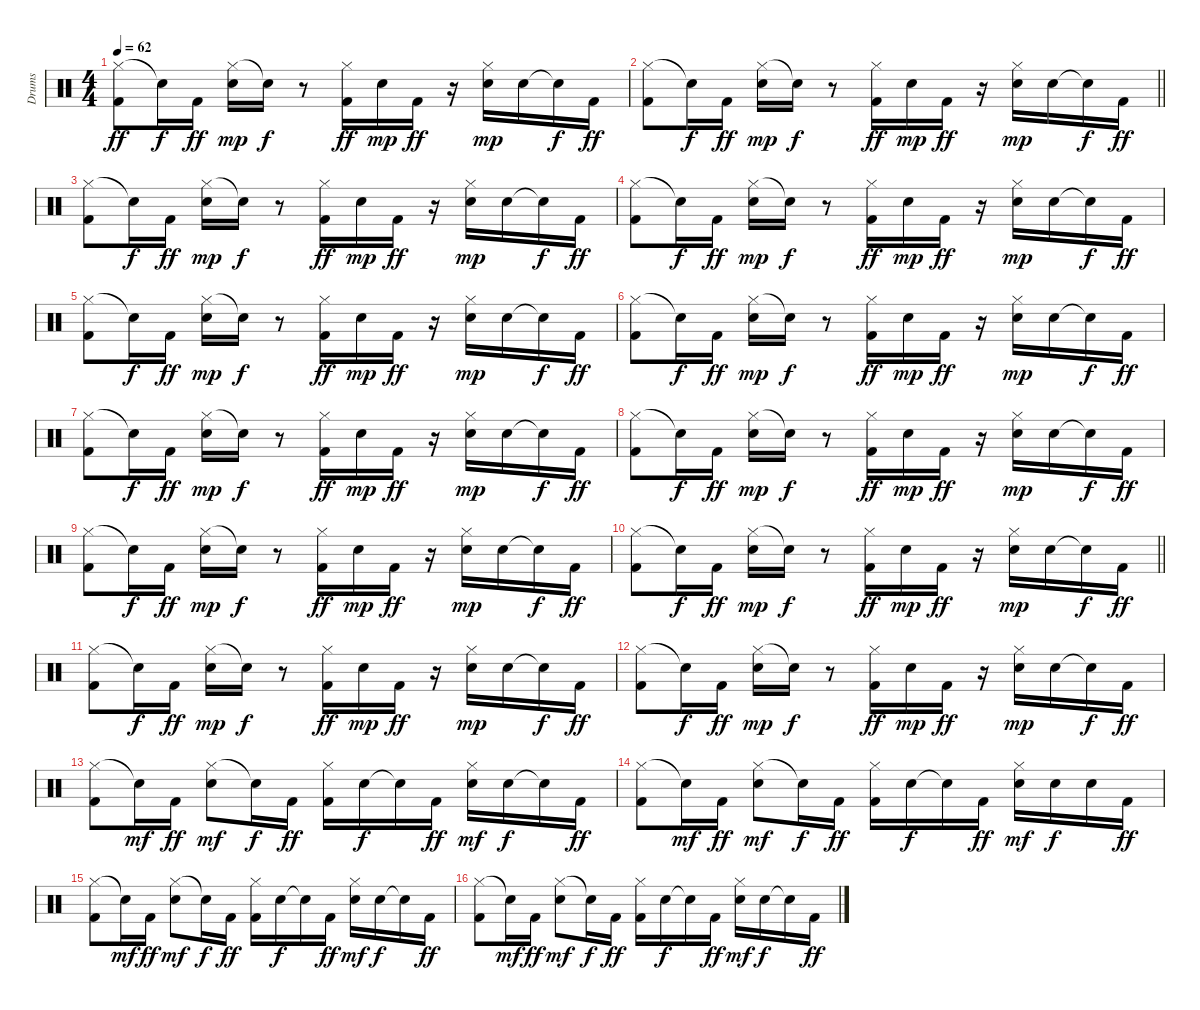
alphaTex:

\track ("Drums" "Drums") {instrument percussion}
\staff {score}
\articulation defaults
\ts (4 4)
\tempo 62
\clef neutral
\ks c
("Hi-Hat (closed)" "Kick (hit) 2").8{dy ff} "Snare (hit)"{t}.16{dy f} "Kick (hit) 2".16{dy ff} ("Hi-Hat (closed)" "Snare (hit) 2").16{dy mp} "Snare (hit)"{t}.16{dy f} r.8 ("Hi-Hat (closed)" "Kick (hit) 2").16{dy ff} "Snare (hit) 2".16{dy mp} "Kick (hit) 2".16{dy ff} r.16 ("Hi-Hat (closed)" "Snare (hit) 2").16{dy mp} "Snare (hit) 2".16 "Snare (hit)"{t}.16{dy f} "Kick (hit) 2".16{dy ff} |
\barLineRight lightlight
("Hi-Hat (closed)" "Kick (hit) 2").8 "Snare (hit)"{t}.16{dy f} "Kick (hit) 2".16{dy ff} ("Hi-Hat (closed)" "Snare (hit) 2").16{dy mp} "Snare (hit)"{t}.16{dy f} r.8 ("Hi-Hat (closed)" "Kick (hit) 2").16{dy ff} "Snare (hit) 2".16{dy mp} "Kick (hit) 2".16{dy ff} r.16 ("Hi-Hat (closed)" "Snare (hit) 2").16{dy mp} "Snare (hit) 2".16 "Snare (hit)"{t}.16{dy f} "Kick (hit) 2".16{dy ff} |
\section ("" "")
("Hi-Hat (closed)" "Kick (hit) 2").8 "Snare (hit)"{t}.16{dy f} "Kick (hit) 2".16{dy ff} ("Hi-Hat (closed)" "Snare (hit) 2").16{dy mp} "Snare (hit)"{t}.16{dy f} r.8 ("Hi-Hat (closed)" "Kick (hit) 2").16{dy ff} "Snare (hit) 2".16{dy mp} "Kick (hit) 2".16{dy ff} r.16 ("Hi-Hat (closed)" "Snare (hit) 2").16{dy mp} "Snare (hit) 2".16 "Snare (hit)"{t}.16{dy f} "Kick (hit) 2".16{dy ff} |
("Hi-Hat (closed)" "Kick (hit) 2").8 "Snare (hit)"{t}.16{dy f} "Kick (hit) 2".16{dy ff} ("Hi-Hat (closed)" "Snare (hit) 2").16{dy mp} "Snare (hit)"{t}.16{dy f} r.8 ("Hi-Hat (closed)" "Kick (hit) 2").16{dy ff} "Snare (hit) 2".16{dy mp} "Kick (hit) 2".16{dy ff} r.16 ("Hi-Hat (closed)" "Snare (hit) 2").16{dy mp} "Snare (hit) 2".16 "Snare (hit)"{t}.16{dy f} "Kick (hit) 2".16{dy ff} |
("Hi-Hat (closed)" "Kick (hit) 2").8 "Snare (hit)"{t}.16{dy f} "Kick (hit) 2".16{dy ff} ("Hi-Hat (closed)" "Snare (hit) 2").16{dy mp} "Snare (hit)"{t}.16{dy f} r.8 ("Hi-Hat (closed)" "Kick (hit) 2").16{dy ff} "Snare (hit) 2".16{dy mp} "Kick (hit) 2".16{dy ff} r.16 ("Hi-Hat (closed)" "Snare (hit) 2").16{dy mp} "Snare (hit) 2".16 "Snare (hit)"{t}.16{dy f} "Kick (hit) 2".16{dy ff} |
("Hi-Hat (closed)" "Kick (hit) 2").8 "Snare (hit)"{t}.16{dy f} "Kick (hit) 2".16{dy ff} ("Hi-Hat (closed)" "Snare (hit) 2").16{dy mp} "Snare (hit)"{t}.16{dy f} r.8 ("Hi-Hat (closed)" "Kick (hit) 2").16{dy ff} "Snare (hit) 2".16{dy mp} "Kick (hit) 2".16{dy ff} r.16 ("Hi-Hat (closed)" "Snare (hit) 2").16{dy mp} "Snare (hit) 2".16 "Snare (hit)"{t}.16{dy f} "Kick (hit) 2".16{dy ff} |
("Hi-Hat (closed)" "Kick (hit) 2").8 "Snare (hit)"{t}.16{dy f} "Kick (hit) 2".16{dy ff} ("Hi-Hat (closed)" "Snare (hit) 2").16{dy mp} "Snare (hit)"{t}.16{dy f} r.8 ("Hi-Hat (closed)" "Kick (hit) 2").16{dy ff} "Snare (hit) 2".16{dy mp} "Kick (hit) 2".16{dy ff} r.16 ("Hi-Hat (closed)" "Snare (hit) 2").16{dy mp} "Snare (hit) 2".16 "Snare (hit)"{t}.16{dy f} "Kick (hit) 2".16{dy ff} |
("Hi-Hat (closed)" "Kick (hit) 2").8 "Snare (hit)"{t}.16{dy f} "Kick (hit) 2".16{dy ff} ("Hi-Hat (closed)" "Snare (hit) 2").16{dy mp} "Snare (hit)"{t}.16{dy f} r.8 ("Hi-Hat (closed)" "Kick (hit) 2").16{dy ff} "Snare (hit) 2".16{dy mp} "Kick (hit) 2".16{dy ff} r.16 ("Hi-Hat (closed)" "Snare (hit) 2").16{dy mp} "Snare (hit) 2".16 "Snare (hit)"{t}.16{dy f} "Kick (hit) 2".16{dy ff} |
("Hi-Hat (closed)" "Kick (hit) 2").8 "Snare (hit)"{t}.16{dy f} "Kick (hit) 2".16{dy ff} ("Hi-Hat (closed)" "Snare (hit) 2").16{dy mp} "Snare (hit)"{t}.16{dy f} r.8 ("Hi-Hat (closed)" "Kick (hit) 2").16{dy ff} "Snare (hit) 2".16{dy mp} "Kick (hit) 2".16{dy ff} r.16 ("Hi-Hat (closed)" "Snare (hit) 2").16{dy mp} "Snare (hit) 2".16 "Snare (hit)"{t}.16{dy f} "Kick (hit) 2".16{dy ff} |
\barLineRight lightlight
("Hi-Hat (closed)" "Kick (hit) 2").8 "Snare (hit)"{t}.16{dy f} "Kick (hit) 2".16{dy ff} ("Hi-Hat (closed)" "Snare (hit) 2").16{dy mp} "Snare (hit)"{t}.16{dy f} r.8 ("Hi-Hat (closed)" "Kick (hit) 2").16{dy ff} "Snare (hit) 2".16{dy mp} "Kick (hit) 2".16{dy ff} r.16 ("Hi-Hat (closed)" "Snare (hit) 2").16{dy mp} "Snare (hit) 2".16 "Snare (hit)"{t}.16{dy f} "Kick (hit) 2".16{dy ff} |
\section ("" "")
("Hi-Hat (closed)" "Kick (hit) 2").8 "Snare (hit)"{t}.16{dy f} "Kick (hit) 2".16{dy ff} ("Hi-Hat (closed)" "Snare (hit) 2").16{dy mp} "Snare (hit)"{t}.16{dy f} r.8 ("Hi-Hat (closed)" "Kick (hit) 2").16{dy ff} "Snare (hit) 2".16{dy mp} "Kick (hit) 2".16{dy ff} r.16 ("Hi-Hat (closed)" "Snare (hit) 2").16{dy mp} "Snare (hit) 2".16 "Snare (hit)"{t}.16{dy f} "Kick (hit) 2".16{dy ff} |
("Hi-Hat (closed)" "Kick (hit) 2").8 "Snare (hit)"{t}.16{dy f} "Kick (hit) 2".16{dy ff} ("Hi-Hat (closed)" "Snare (hit) 2").16{dy mp} "Snare (hit)"{t}.16{dy f} r.8 ("Hi-Hat (closed)" "Kick (hit) 2").16{dy ff} "Snare (hit) 2".16{dy mp} "Kick (hit) 2".16{dy ff} r.16 ("Hi-Hat (closed)" "Snare (hit) 2").16{dy mp} "Snare (hit) 2".16 "Snare (hit)"{t}.16{dy f} "Kick (hit) 2".16{dy ff} |
("Hi-Hat (closed)" "Kick (hit) 2").8 "Snare (hit)"{t}.16{dy mf} "Kick (hit) 2".16{dy ff} ("Hi-Hat (closed)" "Snare (hit) 2").8{dy mf} "Snare (hit)"{t}.16{dy f} "Kick (hit) 2".16{dy ff} ("Hi-Hat (closed)" "Kick (hit) 2").16 "Snare (hit) 2".16{dy f} "Snare (hit)"{t}.16 "Kick (hit) 2".16{dy ff} ("Hi-Hat (closed)" "Snare (hit) 2").16{dy mf} "Snare (hit) 2".16{dy f} "Snare (hit) 2"{t}.16 "Kick (hit) 2".16{dy ff} |
("Hi-Hat (closed)" "Kick (hit) 2").8 "Snare (hit)"{t}.16{dy mf} "Kick (hit) 2".16{dy ff} ("Hi-Hat (closed)" "Snare (hit) 2").8{dy mf} "Snare (hit)"{t}.16{dy f} "Kick (hit) 2".16{dy ff} ("Hi-Hat (closed)" "Kick (hit) 2").16 "Snare (hit) 2".16{dy f} "Snare (hit)"{t}.16 "Kick (hit) 2".16{dy ff} ("Hi-Hat (closed)" "Snare (hit) 2").16{dy mf} "Snare (hit) 2".16{dy f} "Snare (hit) 2".16 "Kick (hit) 2".16{dy ff} |
("Hi-Hat (closed)" "Kick (hit) 2").8 "Snare (hit)"{t}.16{dy mf} "Kick (hit) 2".16{dy ff} ("Hi-Hat (closed)" "Snare (hit) 2").8{dy mf} "Snare (hit)"{t}.16{dy f} "Kick (hit) 2".16{dy ff} ("Hi-Hat (closed)" "Kick (hit) 2").16 "Snare (hit) 2".16{dy f} "Snare (hit)"{t}.16 "Kick (hit) 2".16{dy ff} ("Hi-Hat (closed)" "Snare (hit) 2").16{dy mf} "Snare (hit) 2".16{dy f} "Snare (hit) 2"{t}.16 "Kick (hit) 2".16{dy ff} |
("Hi-Hat (closed)" "Kick (hit) 2").8 "Snare (hit)"{t}.16{dy mf} "Kick (hit) 2".16{dy ff} ("Hi-Hat (closed)" "Snare (hit) 2").8{dy mf} "Snare (hit)"{t}.16{dy f} "Kick (hit) 2".16{dy ff} ("Hi-Hat (closed)" "Kick (hit) 2").16 "Snare (hit) 2".16{dy f} "Snare (hit)"{t}.16 "Kick (hit) 2".16{dy ff} ("Hi-Hat (closed)" "Snare (hit) 2").16{dy mf} "Snare (hit) 2".16{dy f} "Snare (hit) 2"{t}.16 "Kick (hit) 2".16{dy ff}
